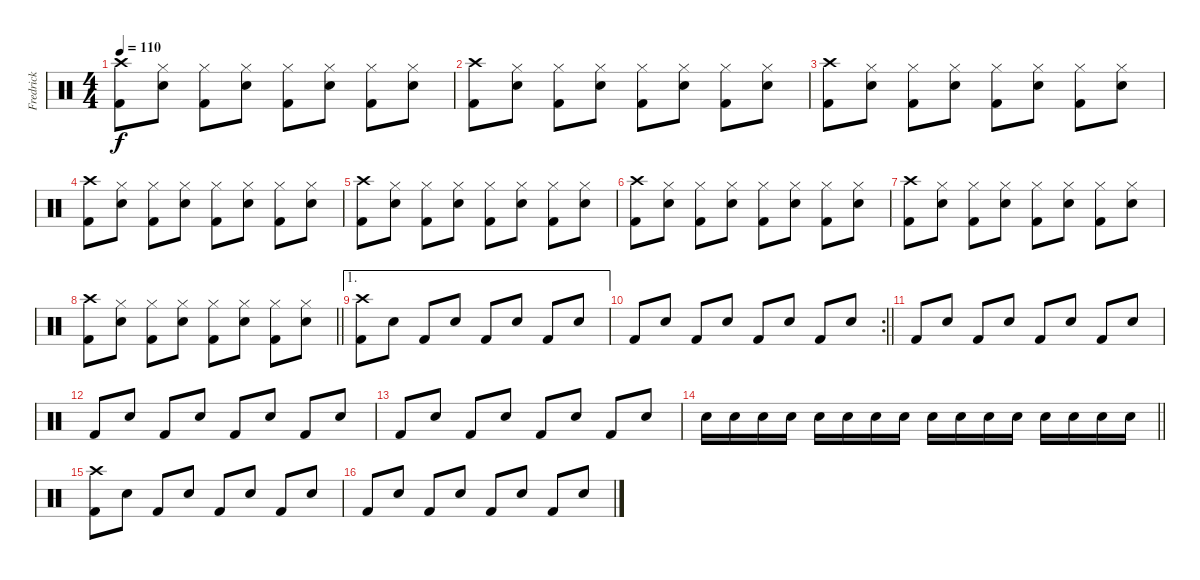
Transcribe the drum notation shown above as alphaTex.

\track ("Fredrick" "Fredrick") {instrument percussion}
\staff {score}
\articulation defaults
\ts (4 4)
\tempo 110
\clef neutral
\ks c
("Crash high (hit)" "Kick (hit) 2").8{dy f} ("Hi-Hat (closed)" "Electric Snare (hit)").8 ("Hi-Hat (closed)" "Kick (hit) 2").8 ("Hi-Hat (closed)" "Electric Snare (hit)").8 ("Hi-Hat (closed)" "Kick (hit) 2").8 ("Hi-Hat (closed)" "Electric Snare (hit)").8 ("Hi-Hat (closed)" "Kick (hit) 2").8 ("Hi-Hat (closed)" "Electric Snare (hit)").8 |
("Crash high (hit)" "Kick (hit) 2").8 ("Hi-Hat (closed)" "Electric Snare (hit)").8 ("Hi-Hat (closed)" "Kick (hit) 2").8 ("Hi-Hat (closed)" "Electric Snare (hit)").8 ("Hi-Hat (closed)" "Kick (hit) 2").8 ("Hi-Hat (closed)" "Electric Snare (hit)").8 ("Hi-Hat (closed)" "Kick (hit) 2").8 ("Hi-Hat (closed)" "Electric Snare (hit)").8 |
("Crash high (hit)" "Kick (hit) 2").8 ("Hi-Hat (closed)" "Electric Snare (hit)").8 ("Hi-Hat (closed)" "Kick (hit) 2").8 ("Hi-Hat (closed)" "Electric Snare (hit)").8 ("Hi-Hat (closed)" "Kick (hit) 2").8 ("Hi-Hat (closed)" "Electric Snare (hit)").8 ("Hi-Hat (closed)" "Kick (hit) 2").8 ("Hi-Hat (closed)" "Electric Snare (hit)").8 |
("Crash high (hit)" "Kick (hit) 2").8 ("Hi-Hat (closed)" "Electric Snare (hit)").8 ("Hi-Hat (closed)" "Kick (hit) 2").8 ("Hi-Hat (closed)" "Electric Snare (hit)").8 ("Hi-Hat (closed)" "Kick (hit) 2").8 ("Hi-Hat (closed)" "Electric Snare (hit)").8 ("Hi-Hat (closed)" "Kick (hit) 2").8 ("Hi-Hat (closed)" "Electric Snare (hit)").8 |
("Crash high (hit)" "Kick (hit) 2").8 ("Hi-Hat (closed)" "Electric Snare (hit)").8 ("Hi-Hat (closed)" "Kick (hit) 2").8 ("Hi-Hat (closed)" "Electric Snare (hit)").8 ("Hi-Hat (closed)" "Kick (hit) 2").8 ("Hi-Hat (closed)" "Electric Snare (hit)").8 ("Hi-Hat (closed)" "Kick (hit) 2").8 ("Hi-Hat (closed)" "Electric Snare (hit)").8 |
("Crash high (hit)" "Kick (hit) 2").8 ("Hi-Hat (closed)" "Electric Snare (hit)").8 ("Hi-Hat (closed)" "Kick (hit) 2").8 ("Hi-Hat (closed)" "Electric Snare (hit)").8 ("Hi-Hat (closed)" "Kick (hit) 2").8 ("Hi-Hat (closed)" "Electric Snare (hit)").8 ("Hi-Hat (closed)" "Kick (hit) 2").8 ("Hi-Hat (closed)" "Electric Snare (hit)").8 |
("Crash high (hit)" "Kick (hit) 2").8 ("Hi-Hat (closed)" "Electric Snare (hit)").8 ("Hi-Hat (closed)" "Kick (hit) 2").8 ("Hi-Hat (closed)" "Electric Snare (hit)").8 ("Hi-Hat (closed)" "Kick (hit) 2").8 ("Hi-Hat (closed)" "Electric Snare (hit)").8 ("Hi-Hat (closed)" "Kick (hit) 2").8 ("Hi-Hat (closed)" "Electric Snare (hit)").8 |
\barLineRight lightlight
("Crash high (hit)" "Kick (hit) 2").8 ("Hi-Hat (closed)" "Electric Snare (hit)").8 ("Hi-Hat (closed)" "Kick (hit) 2").8 ("Hi-Hat (closed)" "Electric Snare (hit)").8 ("Hi-Hat (closed)" "Kick (hit) 2").8 ("Hi-Hat (closed)" "Electric Snare (hit)").8 ("Hi-Hat (closed)" "Kick (hit) 2").8 ("Hi-Hat (closed)" "Electric Snare (hit)").8 |
\ae 1
("Crash high (hit)" "Kick (hit) 2").8 "Electric Snare (hit)".8 "Kick (hit) 2".8 "Electric Snare (hit)".8 "Kick (hit) 2".8 "Electric Snare (hit)".8 "Kick (hit) 2".8 "Electric Snare (hit)".8 |
\rc 2
\barLineRight lightlight "Kick (hit) 2".8 "Electric Snare (hit)".8 "Kick (hit) 2".8 "Electric Snare (hit)".8 "Kick (hit) 2".8 "Electric Snare (hit)".8 "Kick (hit) 2".8 "Electric Snare (hit)".8
|
"Kick (hit) 2".8 "Electric Snare (hit)".8 "Kick (hit) 2".8 "Electric Snare (hit)".8 "Kick (hit) 2".8 "Electric Snare (hit)".8 "Kick (hit) 2".8 "Electric Snare (hit)".8 |
"Kick (hit) 2".8 "Electric Snare (hit)".8 "Kick (hit) 2".8 "Electric Snare (hit)".8 "Kick (hit) 2".8 "Electric Snare (hit)".8 "Kick (hit) 2".8 "Electric Snare (hit)".8 |
"Kick (hit) 2".8 "Electric Snare (hit)".8 "Kick (hit) 2".8 "Electric Snare (hit)".8 "Kick (hit) 2".8 "Electric Snare (hit)".8 "Kick (hit) 2".8 "Electric Snare (hit)".8 |
\barLineRight lightlight "Electric Snare (hit)".16 "Electric Snare (hit)".16 "Electric Snare (hit)".16 "Electric Snare (hit)".16 "Electric Snare (hit)".16 "Electric Snare (hit)".16 "Electric Snare (hit)".16 "Electric Snare (hit)".16 "Electric Snare (hit)".16 "Electric Snare (hit)".16 "Electric Snare (hit)".16 "Electric Snare (hit)".16 "Electric Snare (hit)".16 "Electric Snare (hit)".16 "Electric Snare (hit)".16 "Electric Snare (hit)".16
|
("Crash high (hit)" "Kick (hit) 2").8 "Electric Snare (hit)".8 "Kick (hit) 2".8 "Electric Snare (hit)".8 "Kick (hit) 2".8 "Electric Snare (hit)".8 "Kick (hit) 2".8 "Electric Snare (hit)".8 |
"Kick (hit) 2".8 "Electric Snare (hit)".8 "Kick (hit) 2".8 "Electric Snare (hit)".8 "Kick (hit) 2".8 "Electric Snare (hit)".8 "Kick (hit) 2".8 "Electric Snare (hit)".8
